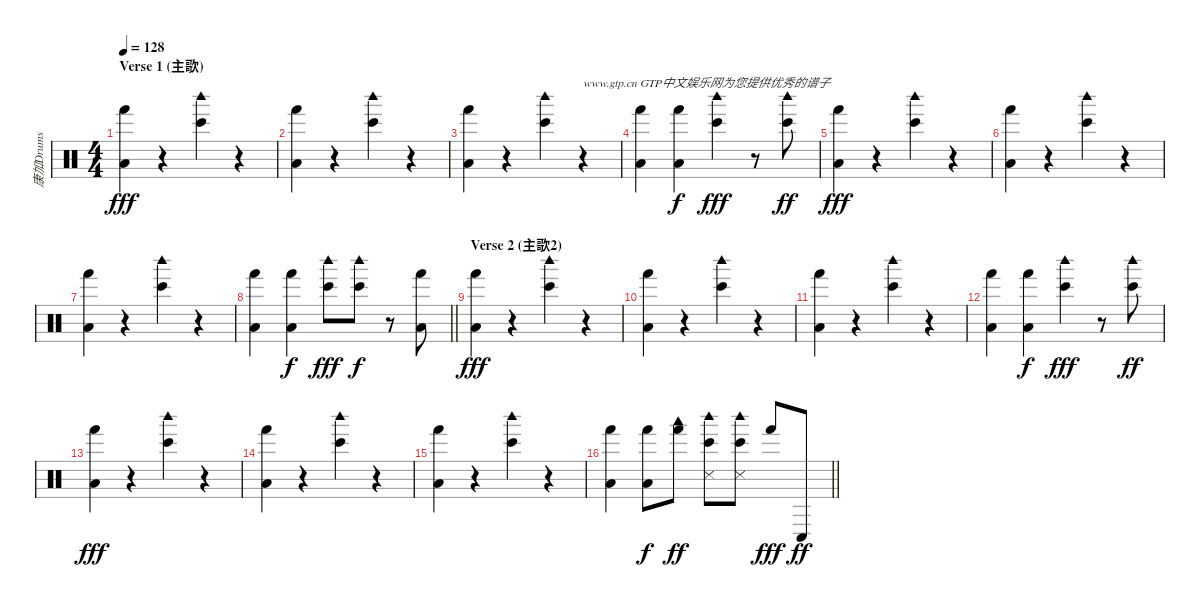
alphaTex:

\track ("康加Drums" "康加Drums") {instrument percussion}
\staff {score}
\articulation defaults
\ts (4 4)
\section ("" "Verse 1 (主歌)")
\tempo 128
\clef neutral
\ks c
("Hand (hit)" "Low Floor Tom (hit)").4{dy fff} r.4 ("Bongo High (hit)" "Woodblock high (hit)").4 r.4 |
("Hand (hit)" "Low Floor Tom (hit)").4 r.4 ("Bongo High (hit)" "Woodblock high (hit)").4 r.4 |
("Hand (hit)" "Low Floor Tom (hit)").4 r.4 ("Bongo High (hit)" "Woodblock high (hit)").4 r.4{txt "www.gtp.cn GTP中文娱乐网为您提供优秀的谱子"} |
("Hand (hit)" "Low Floor Tom (hit)").4 ("Hand (hit)" "Low Floor Tom (hit)").4{dy f} ("Bongo High (hit)" "Woodblock high (hit)").4{dy fff} r.8 ("Bongo High (hit)" "Woodblock high (hit)").8{dy ff} |
("Hand (hit)" "Low Floor Tom (hit)").4{dy fff} r.4 ("Bongo High (hit)" "Woodblock high (hit)").4 r.4 |
("Hand (hit)" "Low Floor Tom (hit)").4 r.4 ("Bongo High (hit)" "Woodblock high (hit)").4 r.4 |
("Hand (hit)" "Low Floor Tom (hit)").4 r.4 ("Bongo High (hit)" "Woodblock high (hit)").4 r.4 |
\barLineRight lightlight
("Hand (hit)" "Low Floor Tom (hit)").4 ("Hand (hit)" "Low Floor Tom (hit)").4{dy f} ("Bongo High (hit)" "Woodblock high (hit)").8{dy fff} ("Bongo High (hit)" "Woodblock high (hit)").8{dy f} r.8 ("Hand (hit)" "Low Floor Tom (hit)").8 |
\section ("" "Verse 2 (主歌2)")
("Hand (hit)" "Low Floor Tom (hit)").4{dy fff} r.4 ("Bongo High (hit)" "Woodblock high (hit)").4 r.4 |
("Hand (hit)" "Low Floor Tom (hit)").4 r.4 ("Bongo High (hit)" "Woodblock high (hit)").4 r.4 |
("Hand (hit)" "Low Floor Tom (hit)").4 r.4 ("Bongo High (hit)" "Woodblock high (hit)").4 r.4 |
("Hand (hit)" "Low Floor Tom (hit)").4 ("Hand (hit)" "Low Floor Tom (hit)").4{dy f} ("Bongo High (hit)" "Woodblock high (hit)").4{dy fff} r.8 ("Bongo High (hit)" "Woodblock high (hit)").8{dy ff} |
("Hand (hit)" "Low Floor Tom (hit)").4{dy fff} r.4 ("Bongo High (hit)" "Woodblock high (hit)").4 r.4 |
("Hand (hit)" "Low Floor Tom (hit)").4 r.4 ("Bongo High (hit)" "Woodblock high (hit)").4 r.4 |
("Hand (hit)" "Low Floor Tom (hit)").4 r.4 ("Bongo High (hit)" "Woodblock high (hit)").4 r.4 |
\barLineRight lightlight
("Hand (hit)" "Low Floor Tom (hit)").4 ("Hand (hit)" "Low Floor Tom (hit)").8{dy f} ("Hand (hit)" "Woodblock low (hit)").8{dy ff} ("Bongo High (hit)" "Woodblock high (hit)" "Snare (side stick) 3").8 ("Bongo High (hit)" "Woodblock high (hit)" "Snare (side stick) 3").8 "Hand (hit)".8{dy fff} "Conga low (hit)".8{dy ff}
